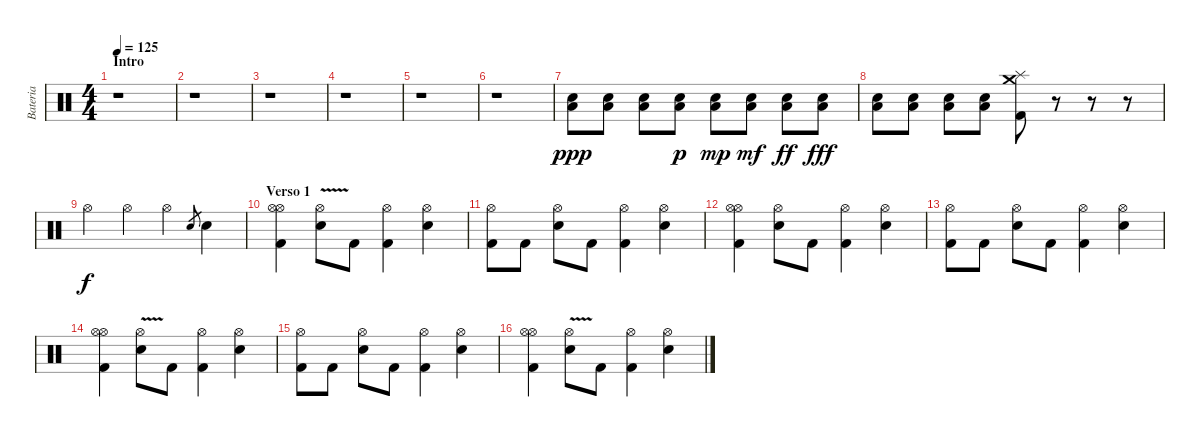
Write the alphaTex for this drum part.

\track ("Bateria" "Bateria") {instrument percussion}
\staff {score}
\articulation defaults
\ts (4 4)
\section ("" "Intro")
\tempo 125
\clef neutral
\ks c
r.1{dy ppp} |
r.1 |
r.1 |
r.1 |
r.1 |
r.1 |
("Electric Snare (hit)" "Low Floor Tom (hit)").8 ("Electric Snare (hit)" "Low Floor Tom (hit)").8 ("Electric Snare (hit)" "Low Floor Tom (hit)").8 ("Electric Snare (hit)" "Low Floor Tom (hit)").8{dy p} ("Electric Snare (hit)" "Low Floor Tom (hit)").8{dy mp} ("Electric Snare (hit)" "Low Floor Tom (hit)").8{dy mf} ("Electric Snare (hit)" "Low Floor Tom (hit)").8{dy ff} ("Electric Snare (hit)" "Low Floor Tom (hit)").8{dy fff} |
("Electric Snare (hit)" "Low Floor Tom (hit)").8 ("Electric Snare (hit)" "Low Floor Tom (hit)").8 ("Electric Snare (hit)" "Low Floor Tom (hit)").8 ("Electric Snare (hit)" "Low Floor Tom (hit)").8 ("Splash (hit)" "Crash medium (hit)" "Kick (hit) 2").8 r.8 r.8 r.8 |
"Hi-Hat (open)".4{dy f} "Hi-Hat (open)".4 "Hi-Hat (open)".4 "Electric Snare (hit)".8{gr} "Electric Snare (hit)".4 |
\section ("" "Verso 1")
("Hi-Hat (open)" "Hi-Hat (open)" "Kick (hit) 2").4 ("Hi-Hat (open)"{v} "Electric Snare (hit)").8 "Kick (hit) 2".8 ("Hi-Hat (open)" "Kick (hit) 2").4 ("Electric Snare (hit)" "Hi-Hat (open)").4 |
("Hi-Hat (open)" "Kick (hit) 2").8 "Kick (hit) 2".8 ("Hi-Hat (open)" "Electric Snare (hit)").8 "Kick (hit) 2".8 ("Hi-Hat (open)" "Kick (hit) 2").4 ("Electric Snare (hit)" "Hi-Hat (open)").4 |
("Hi-Hat (open)" "Hi-Hat (open)" "Kick (hit) 2").4 ("Hi-Hat (open)" "Electric Snare (hit)").8 "Kick (hit) 2".8 ("Hi-Hat (open)" "Kick (hit) 2").4 ("Electric Snare (hit)" "Hi-Hat (open)").4 |
("Hi-Hat (open)" "Kick (hit) 2").8 "Kick (hit) 2".8 ("Hi-Hat (open)" "Electric Snare (hit)").8 "Kick (hit) 2".8 ("Hi-Hat (open)" "Kick (hit) 2").4 ("Electric Snare (hit)" "Hi-Hat (open)").4 |
("Hi-Hat (open)" "Hi-Hat (open)" "Kick (hit) 2").4 ("Hi-Hat (open)"{v} "Electric Snare (hit)").8 "Kick (hit) 2".8 ("Hi-Hat (open)" "Kick (hit) 2").4 ("Electric Snare (hit)" "Hi-Hat (open)").4 |
("Hi-Hat (open)" "Kick (hit) 2").8 "Kick (hit) 2".8 ("Hi-Hat (open)" "Electric Snare (hit)").8 "Kick (hit) 2".8 ("Hi-Hat (open)" "Kick (hit) 2").4 ("Electric Snare (hit)" "Hi-Hat (open)").4 |
("Hi-Hat (open)" "Hi-Hat (open)" "Kick (hit) 2").4 ("Hi-Hat (open)"{v} "Electric Snare (hit)").8 "Kick (hit) 2".8 ("Hi-Hat (open)" "Kick (hit) 2").4 ("Electric Snare (hit)" "Hi-Hat (open)").4
